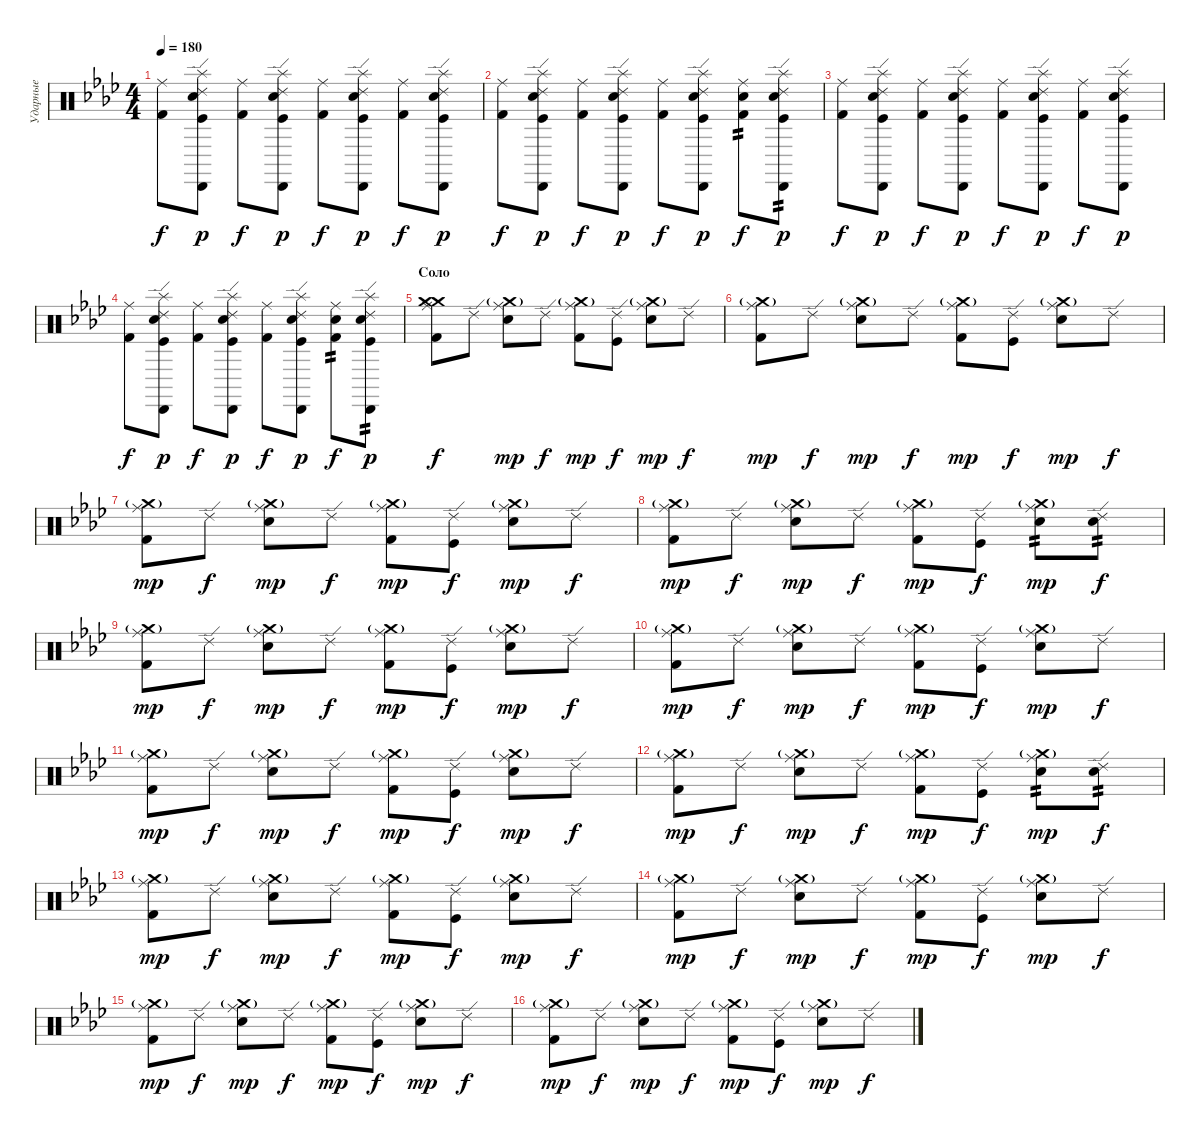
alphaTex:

\track ("Ударные" "Ударные") {instrument percussion}
\staff {score}
\articulation defaults
\ts (4 4)
\tempo 180
\clef neutral
\ks ab
("Ride (middle)" "Kick (hit) 2").8{dy f} ("Ride (edge) 2" "Cabasa (hit)" "Electric Snare (hit)" "Kick (hit)" "Splash (hit)").8{dy p} ("Ride (middle)" "Kick (hit) 2").8{dy f} ("Ride (edge) 2" "Cabasa (hit)" "Electric Snare (hit)" "Kick (hit)" "Splash (hit)").8{dy p} ("Ride (middle)" "Kick (hit) 2").8{dy f} ("Ride (edge) 2" "Cabasa (hit)" "Electric Snare (hit)" "Kick (hit)" "Splash (hit)").8{dy p} ("Ride (middle)" "Kick (hit) 2").8{dy f} ("Ride (edge) 2" "Cabasa (hit)" "Electric Snare (hit)" "Kick (hit)" "Splash (hit)").8{dy p} |
("Ride (middle)" "Kick (hit) 2").8{dy f} ("Ride (edge) 2" "Cabasa (hit)" "Electric Snare (hit)" "Kick (hit)" "Splash (hit)").8{dy p} ("Ride (middle)" "Kick (hit) 2").8{dy f} ("Ride (edge) 2" "Cabasa (hit)" "Electric Snare (hit)" "Kick (hit)" "Splash (hit)").8{dy p} ("Ride (middle)" "Kick (hit) 2").8{dy f} ("Ride (edge) 2" "Cabasa (hit)" "Electric Snare (hit)" "Kick (hit)" "Splash (hit)").8{dy p} ("Ride (middle)" "Kick (hit) 2" "Electric Snare (hit)").8{tp 2 dy f} ("Ride (edge) 2" "Cabasa (hit)" "Electric Snare (hit)" "Kick (hit)" "Splash (hit)").8{tp 2 dy p} |
("Ride (middle)" "Kick (hit) 2").8{dy f} ("Ride (edge) 2" "Cabasa (hit)" "Electric Snare (hit)" "Kick (hit)" "Splash (hit)").8{dy p} ("Ride (middle)" "Kick (hit) 2").8{dy f} ("Ride (edge) 2" "Cabasa (hit)" "Electric Snare (hit)" "Kick (hit)" "Splash (hit)").8{dy p} ("Ride (middle)" "Kick (hit) 2").8{dy f} ("Ride (edge) 2" "Cabasa (hit)" "Electric Snare (hit)" "Kick (hit)" "Splash (hit)").8{dy p} ("Ride (middle)" "Kick (hit) 2").8{dy f} ("Ride (edge) 2" "Cabasa (hit)" "Electric Snare (hit)" "Kick (hit)" "Splash (hit)").8{dy p} |
("Ride (middle)" "Kick (hit) 2").8{dy f} ("Ride (edge) 2" "Cabasa (hit)" "Electric Snare (hit)" "Kick (hit)" "Splash (hit)").8{dy p} ("Ride (middle)" "Kick (hit) 2").8{dy f} ("Ride (edge) 2" "Cabasa (hit)" "Electric Snare (hit)" "Kick (hit)" "Splash (hit)").8{dy p} ("Ride (middle)" "Kick (hit) 2").8{dy f} ("Ride (edge) 2" "Cabasa (hit)" "Electric Snare (hit)" "Kick (hit)" "Splash (hit)").8{dy p} ("Ride (middle)" "Kick (hit) 2" "Electric Snare (hit)").8{tp 2 dy f} ("Ride (edge) 2" "Cabasa (hit)" "Electric Snare (hit)" "Kick (hit)" "Splash (hit)").8{tp 2 dy p} |
\section ("" "Соло")
("Crash medium (hit)" "Ride (middle)" "Kick (hit) 2" "Crash medium (hit)").8{dy f} "Ride (edge) 2".8 ("Crash medium (hit)"{g} "Ride (middle)" "Electric Snare (hit)").8{dy mp} "Ride (edge) 2".8{dy f} ("Crash medium (hit)"{g} "Ride (middle)" "Kick (hit) 2").8{dy mp} ("Ride (edge) 2" "Kick (hit)").8{dy f} ("Crash medium (hit)"{g} "Ride (middle)" "Electric Snare (hit)").8{dy mp} "Ride (edge) 2".8{dy f} |
("Crash medium (hit)"{g} "Ride (middle)" "Kick (hit) 2").8{dy mp} "Ride (edge) 2".8{dy f} ("Crash medium (hit)"{g} "Ride (middle)" "Electric Snare (hit)").8{dy mp} "Ride (edge) 2".8{dy f} ("Crash medium (hit)"{g} "Ride (middle)" "Kick (hit) 2").8{dy mp} ("Ride (edge) 2" "Kick (hit)").8{dy f} ("Crash medium (hit)"{g} "Ride (middle)" "Electric Snare (hit)").8{dy mp} "Ride (edge) 2".8{dy f} |
("Crash medium (hit)"{g} "Ride (middle)" "Kick (hit) 2").8{dy mp} "Ride (edge) 2".8{dy f} ("Crash medium (hit)"{g} "Ride (middle)" "Electric Snare (hit)").8{dy mp} "Ride (edge) 2".8{dy f} ("Crash medium (hit)"{g} "Ride (middle)" "Kick (hit) 2").8{dy mp} ("Ride (edge) 2" "Kick (hit)").8{dy f} ("Crash medium (hit)"{g} "Ride (middle)" "Electric Snare (hit)").8{dy mp} "Ride (edge) 2".8{dy f} |
("Crash medium (hit)"{g} "Ride (middle)" "Kick (hit) 2").8{dy mp} "Ride (edge) 2".8{dy f} ("Crash medium (hit)"{g} "Ride (middle)" "Electric Snare (hit)").8{dy mp} "Ride (edge) 2".8{dy f} ("Crash medium (hit)"{g} "Ride (middle)" "Kick (hit) 2").8{dy mp} ("Ride (edge) 2" "Kick (hit)").8{dy f} ("Crash medium (hit)"{g} "Ride (middle)" "Electric Snare (hit)").8{tp 2 dy mp} ("Ride (edge) 2" "Electric Snare (hit)").8{tp 2 dy f} |
("Crash medium (hit)"{g} "Ride (middle)" "Kick (hit) 2").8{dy mp} "Ride (edge) 2".8{dy f} ("Crash medium (hit)"{g} "Ride (middle)" "Electric Snare (hit)").8{dy mp} "Ride (edge) 2".8{dy f} ("Crash medium (hit)"{g} "Ride (middle)" "Kick (hit) 2").8{dy mp} ("Ride (edge) 2" "Kick (hit)").8{dy f} ("Crash medium (hit)"{g} "Ride (middle)" "Electric Snare (hit)").8{dy mp} "Ride (edge) 2".8{dy f} |
("Crash medium (hit)"{g} "Ride (middle)" "Kick (hit) 2").8{dy mp} "Ride (edge) 2".8{dy f} ("Crash medium (hit)"{g} "Ride (middle)" "Electric Snare (hit)").8{dy mp} "Ride (edge) 2".8{dy f} ("Crash medium (hit)"{g} "Ride (middle)" "Kick (hit) 2").8{dy mp} ("Ride (edge) 2" "Kick (hit)").8{dy f} ("Crash medium (hit)"{g} "Ride (middle)" "Electric Snare (hit)").8{dy mp} "Ride (edge) 2".8{dy f} |
("Crash medium (hit)"{g} "Ride (middle)" "Kick (hit) 2").8{dy mp} "Ride (edge) 2".8{dy f} ("Crash medium (hit)"{g} "Ride (middle)" "Electric Snare (hit)").8{dy mp} "Ride (edge) 2".8{dy f} ("Crash medium (hit)"{g} "Ride (middle)" "Kick (hit) 2").8{dy mp} ("Ride (edge) 2" "Kick (hit)").8{dy f} ("Crash medium (hit)"{g} "Ride (middle)" "Electric Snare (hit)").8{dy mp} "Ride (edge) 2".8{dy f} |
("Crash medium (hit)"{g} "Ride (middle)" "Kick (hit) 2").8{dy mp} "Ride (edge) 2".8{dy f} ("Crash medium (hit)"{g} "Ride (middle)" "Electric Snare (hit)").8{dy mp} "Ride (edge) 2".8{dy f} ("Crash medium (hit)"{g} "Ride (middle)" "Kick (hit) 2").8{dy mp} ("Ride (edge) 2" "Kick (hit)").8{dy f} ("Crash medium (hit)"{g} "Ride (middle)" "Electric Snare (hit)").8{tp 2 dy mp} ("Ride (edge) 2" "Electric Snare (hit)").8{tp 2 dy f} |
("Crash medium (hit)"{g} "Ride (middle)" "Kick (hit) 2").8{dy mp} "Ride (edge) 2".8{dy f} ("Crash medium (hit)"{g} "Ride (middle)" "Electric Snare (hit)").8{dy mp} "Ride (edge) 2".8{dy f} ("Crash medium (hit)"{g} "Ride (middle)" "Kick (hit) 2").8{dy mp} ("Ride (edge) 2" "Kick (hit)").8{dy f} ("Crash medium (hit)"{g} "Ride (middle)" "Electric Snare (hit)").8{dy mp} "Ride (edge) 2".8{dy f} |
("Crash medium (hit)"{g} "Ride (middle)" "Kick (hit) 2").8{dy mp} "Ride (edge) 2".8{dy f} ("Crash medium (hit)"{g} "Ride (middle)" "Electric Snare (hit)").8{dy mp} "Ride (edge) 2".8{dy f} ("Crash medium (hit)"{g} "Ride (middle)" "Kick (hit) 2").8{dy mp} ("Ride (edge) 2" "Kick (hit)").8{dy f} ("Crash medium (hit)"{g} "Ride (middle)" "Electric Snare (hit)").8{dy mp} "Ride (edge) 2".8{dy f} |
("Crash medium (hit)"{g} "Ride (middle)" "Kick (hit) 2").8{dy mp} "Ride (edge) 2".8{dy f} ("Crash medium (hit)"{g} "Ride (middle)" "Electric Snare (hit)").8{dy mp} "Ride (edge) 2".8{dy f} ("Crash medium (hit)"{g} "Ride (middle)" "Kick (hit) 2").8{dy mp} ("Ride (edge) 2" "Kick (hit)").8{dy f} ("Crash medium (hit)"{g} "Ride (middle)" "Electric Snare (hit)").8{dy mp} "Ride (edge) 2".8{dy f} |
("Crash medium (hit)"{g} "Ride (middle)" "Kick (hit) 2").8{dy mp} "Ride (edge) 2".8{dy f} ("Crash medium (hit)"{g} "Ride (middle)" "Electric Snare (hit)").8{dy mp} "Ride (edge) 2".8{dy f} ("Crash medium (hit)"{g} "Ride (middle)" "Kick (hit) 2").8{dy mp} ("Ride (edge) 2" "Kick (hit)").8{dy f} ("Crash medium (hit)"{g} "Ride (middle)" "Electric Snare (hit)").8{dy mp} "Ride (edge) 2".8{dy f}
